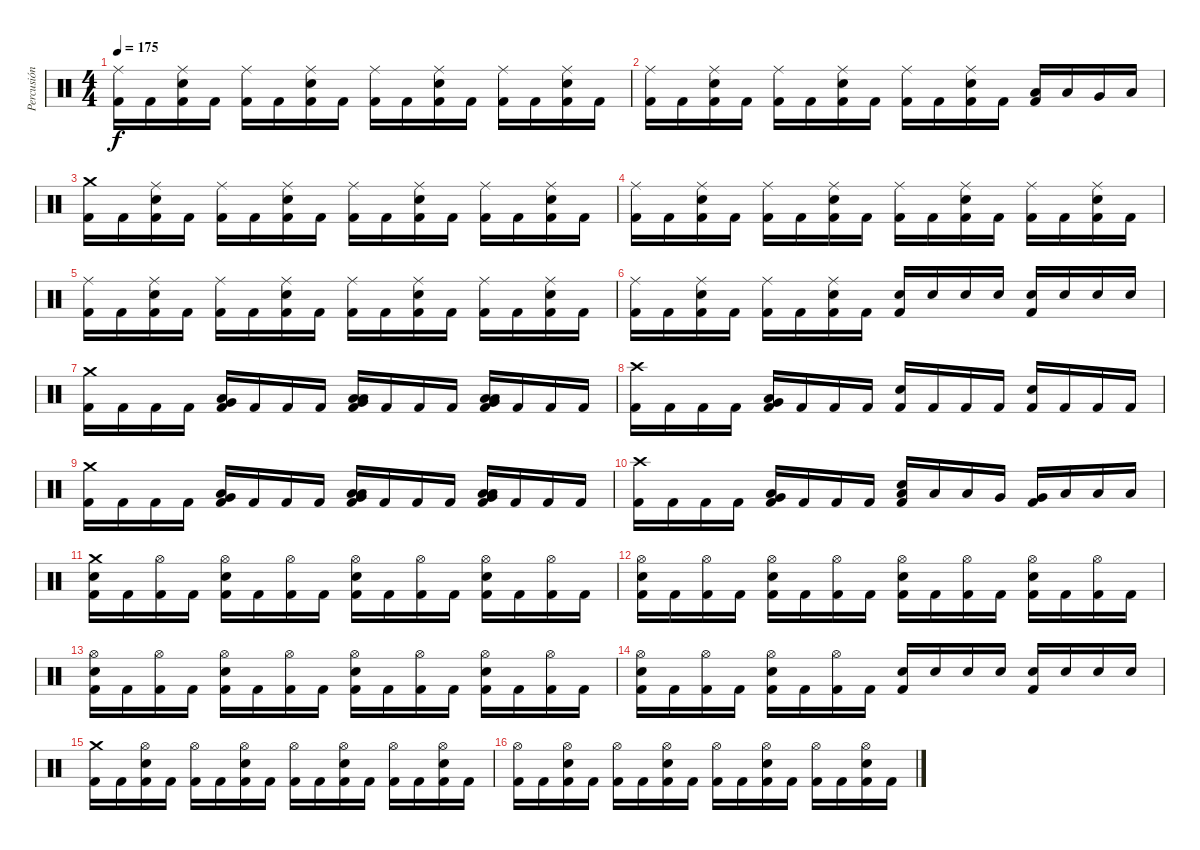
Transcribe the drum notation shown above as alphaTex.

\track ("Percusión" "Percusión") {instrument percussion}
\staff {score}
\articulation defaults
\ts (4 4)
\tempo 175
\clef neutral
\ks c
("Ride (middle)" "Kick (hit) 2").16{dy f} "Kick (hit) 2".16 ("Ride (middle)" "Electric Snare (hit)" "Kick (hit) 2").16 "Kick (hit) 2".16 ("Ride (middle)" "Kick (hit) 2").16 "Kick (hit) 2".16 ("Ride (middle)" "Electric Snare (hit)" "Kick (hit) 2").16 "Kick (hit) 2".16 ("Ride (middle)" "Kick (hit) 2").16 "Kick (hit) 2".16 ("Ride (middle)" "Electric Snare (hit)" "Kick (hit) 2").16 "Kick (hit) 2".16 ("Ride (middle)" "Kick (hit) 2").16 "Kick (hit) 2".16 ("Ride (middle)" "Electric Snare (hit)" "Kick (hit) 2").16 "Kick (hit) 2".16 |
("Ride (middle)" "Kick (hit) 2").16 "Kick (hit) 2".16 ("Ride (middle)" "Electric Snare (hit)" "Kick (hit) 2").16 "Kick (hit) 2".16 ("Ride (middle)" "Kick (hit) 2").16 "Kick (hit) 2".16 ("Ride (middle)" "Electric Snare (hit)" "Kick (hit) 2").16 "Kick (hit) 2".16 ("Ride (middle)" "Kick (hit) 2").16 "Kick (hit) 2".16 ("Ride (middle)" "Electric Snare (hit)" "Kick (hit) 2").16 "Kick (hit) 2".16 ("Low Tom (hit)" "Kick (hit) 2").16 "Low Tom (hit)".16 "Very Low Tom (hit)".16 "Low Floor Tom (hit)".16 |
("Crash medium (hit)" "Kick (hit) 2").16 "Kick (hit) 2".16 ("Ride (middle)" "Electric Snare (hit)" "Kick (hit) 2").16 "Kick (hit) 2".16 ("Ride (middle)" "Kick (hit) 2").16 "Kick (hit) 2".16 ("Ride (middle)" "Electric Snare (hit)" "Kick (hit) 2").16 "Kick (hit) 2".16 ("Ride (middle)" "Kick (hit) 2").16 "Kick (hit) 2".16 ("Ride (middle)" "Electric Snare (hit)" "Kick (hit) 2").16 "Kick (hit) 2".16 ("Ride (middle)" "Kick (hit) 2").16 "Kick (hit) 2".16 ("Ride (middle)" "Electric Snare (hit)" "Kick (hit) 2").16 "Kick (hit) 2".16 |
("Ride (middle)" "Kick (hit) 2").16 "Kick (hit) 2".16 ("Ride (middle)" "Electric Snare (hit)" "Kick (hit) 2").16 "Kick (hit) 2".16 ("Ride (middle)" "Kick (hit) 2").16 "Kick (hit) 2".16 ("Ride (middle)" "Electric Snare (hit)" "Kick (hit) 2").16 "Kick (hit) 2".16 ("Ride (middle)" "Kick (hit) 2").16 "Kick (hit) 2".16 ("Ride (middle)" "Electric Snare (hit)" "Kick (hit) 2").16 "Kick (hit) 2".16 ("Ride (middle)" "Kick (hit) 2").16 "Kick (hit) 2".16 ("Ride (middle)" "Electric Snare (hit)" "Kick (hit) 2").16 "Kick (hit) 2".16 |
("Ride (middle)" "Kick (hit) 2").16 "Kick (hit) 2".16 ("Ride (middle)" "Electric Snare (hit)" "Kick (hit) 2").16 "Kick (hit) 2".16 ("Ride (middle)" "Kick (hit) 2").16 "Kick (hit) 2".16 ("Ride (middle)" "Electric Snare (hit)" "Kick (hit) 2").16 "Kick (hit) 2".16 ("Ride (middle)" "Kick (hit) 2").16 "Kick (hit) 2".16 ("Ride (middle)" "Electric Snare (hit)" "Kick (hit) 2").16 "Kick (hit) 2".16 ("Ride (middle)" "Kick (hit) 2").16 "Kick (hit) 2".16 ("Ride (middle)" "Electric Snare (hit)" "Kick (hit) 2").16 "Kick (hit) 2".16 |
("Ride (middle)" "Kick (hit) 2").16 "Kick (hit) 2".16 ("Ride (middle)" "Electric Snare (hit)" "Kick (hit) 2").16 "Kick (hit) 2".16 ("Ride (middle)" "Kick (hit) 2").16 "Kick (hit) 2".16 ("Ride (middle)" "Electric Snare (hit)" "Kick (hit) 2").16 "Kick (hit) 2".16 ("Electric Snare (hit)" "Kick (hit) 2").16 "Electric Snare (hit)".16 "Electric Snare (hit)".16 "Electric Snare (hit)".16 ("Electric Snare (hit)" "Kick (hit) 2").16 "Electric Snare (hit)".16 "Electric Snare (hit)".16 "Electric Snare (hit)".16 |
("Crash medium (hit)" "Kick (hit) 2").16 "Kick (hit) 2".16 "Kick (hit) 2".16 "Kick (hit) 2".16 ("Low Tom (hit)" "Very Low Tom (hit)" "Kick (hit) 2").16 "Kick (hit) 2".16 "Kick (hit) 2".16 "Kick (hit) 2".16 ("Low Tom (hit)" "Very Low Tom (hit)" "Low Floor Tom (hit)" "Kick (hit) 2").16 "Kick (hit) 2".16 "Kick (hit) 2".16 "Kick (hit) 2".16 ("Low Tom (hit)" "Very Low Tom (hit)" "Low Floor Tom (hit)" "Kick (hit) 2").16 "Kick (hit) 2".16 "Kick (hit) 2".16 "Kick (hit) 2".16 |
("Crash high (hit)" "Kick (hit) 2").16 "Kick (hit) 2".16 "Kick (hit) 2".16 "Kick (hit) 2".16 ("Low Tom (hit)" "Very Low Tom (hit)" "Kick (hit) 2").16 "Kick (hit) 2".16 "Kick (hit) 2".16 "Kick (hit) 2".16 ("Electric Snare (hit)" "Kick (hit) 2").16 "Kick (hit) 2".16 "Kick (hit) 2".16 "Kick (hit) 2".16 ("Electric Snare (hit)" "Kick (hit) 2").16 "Kick (hit) 2".16 "Kick (hit) 2".16 "Kick (hit) 2".16 |
("Crash medium (hit)" "Kick (hit) 2").16 "Kick (hit) 2".16 "Kick (hit) 2".16 "Kick (hit) 2".16 ("Low Tom (hit)" "Very Low Tom (hit)" "Kick (hit) 2").16 "Kick (hit) 2".16 "Kick (hit) 2".16 "Kick (hit) 2".16 ("Low Tom (hit)" "Very Low Tom (hit)" "Low Floor Tom (hit)" "Kick (hit) 2").16 "Kick (hit) 2".16 "Kick (hit) 2".16 "Kick (hit) 2".16 ("Low Tom (hit)" "Very Low Tom (hit)" "Low Floor Tom (hit)" "Kick (hit) 2").16 "Kick (hit) 2".16 "Kick (hit) 2".16 "Kick (hit) 2".16 |
("Crash high (hit)" "Kick (hit) 2").16 "Kick (hit) 2".16 "Kick (hit) 2".16 "Kick (hit) 2".16 ("Low Tom (hit)" "Very Low Tom (hit)" "Kick (hit) 2").16 "Kick (hit) 2".16 "Kick (hit) 2".16 "Kick (hit) 2".16 ("Low Tom (hit)" "Electric Snare (hit)" "Kick (hit) 2").16 "Low Tom (hit)".16 "Low Tom (hit)".16 "Very Low Tom (hit)".16 ("Very Low Tom (hit)" "Kick (hit) 2").16 "Low Floor Tom (hit)".16 "Low Floor Tom (hit)".16 "Low Floor Tom (hit)".16 |
("Crash medium (hit)" "Electric Snare (hit)" "Kick (hit) 2").16 "Kick (hit) 2".16 ("Hi-Hat (open)" "Kick (hit) 2").16 "Kick (hit) 2".16 ("Hi-Hat (open)" "Electric Snare (hit)" "Kick (hit) 2").16 "Kick (hit) 2".16 ("Hi-Hat (open)" "Kick (hit) 2").16 "Kick (hit) 2".16 ("Hi-Hat (open)" "Electric Snare (hit)" "Kick (hit) 2").16 "Kick (hit) 2".16 ("Hi-Hat (open)" "Kick (hit) 2").16 "Kick (hit) 2".16 ("Hi-Hat (open)" "Electric Snare (hit)" "Kick (hit) 2").16 "Kick (hit) 2".16 ("Hi-Hat (open)" "Kick (hit) 2").16 "Kick (hit) 2".16 |
("Hi-Hat (open)" "Electric Snare (hit)" "Kick (hit) 2").16 "Kick (hit) 2".16 ("Hi-Hat (open)" "Kick (hit) 2").16 "Kick (hit) 2".16 ("Hi-Hat (open)" "Electric Snare (hit)" "Kick (hit) 2").16 "Kick (hit) 2".16 ("Hi-Hat (open)" "Kick (hit) 2").16 "Kick (hit) 2".16 ("Hi-Hat (open)" "Electric Snare (hit)" "Kick (hit) 2").16 "Kick (hit) 2".16 ("Hi-Hat (open)" "Kick (hit) 2").16 "Kick (hit) 2".16 ("Hi-Hat (open)" "Electric Snare (hit)" "Kick (hit) 2").16 "Kick (hit) 2".16 ("Hi-Hat (open)" "Kick (hit) 2").16 "Kick (hit) 2".16 |
("Hi-Hat (open)" "Electric Snare (hit)" "Kick (hit) 2").16 "Kick (hit) 2".16 ("Hi-Hat (open)" "Kick (hit) 2").16 "Kick (hit) 2".16 ("Hi-Hat (open)" "Electric Snare (hit)" "Kick (hit) 2").16 "Kick (hit) 2".16 ("Hi-Hat (open)" "Kick (hit) 2").16 "Kick (hit) 2".16 ("Hi-Hat (open)" "Electric Snare (hit)" "Kick (hit) 2").16 "Kick (hit) 2".16 ("Hi-Hat (open)" "Kick (hit) 2").16 "Kick (hit) 2".16 ("Hi-Hat (open)" "Electric Snare (hit)" "Kick (hit) 2").16 "Kick (hit) 2".16 ("Hi-Hat (open)" "Kick (hit) 2").16 "Kick (hit) 2".16 |
("Hi-Hat (open)" "Electric Snare (hit)" "Kick (hit) 2").16 "Kick (hit) 2".16 ("Hi-Hat (open)" "Kick (hit) 2").16 "Kick (hit) 2".16 ("Hi-Hat (open)" "Electric Snare (hit)" "Kick (hit) 2").16 "Kick (hit) 2".16 ("Hi-Hat (open)" "Kick (hit) 2").16 "Kick (hit) 2".16 ("Electric Snare (hit)" "Kick (hit) 2").16 "Electric Snare (hit)".16 "Electric Snare (hit)".16 "Electric Snare (hit)".16 ("Electric Snare (hit)" "Kick (hit) 2").16 "Electric Snare (hit)".16 "Electric Snare (hit)".16 "Electric Snare (hit)".16 |
("Crash medium (hit)" "Kick (hit) 2").16 "Kick (hit) 2".16 ("Hi-Hat (open)" "Electric Snare (hit)" "Kick (hit) 2").16 "Kick (hit) 2".16 ("Hi-Hat (open)" "Kick (hit) 2").16 "Kick (hit) 2".16 ("Hi-Hat (open)" "Electric Snare (hit)" "Kick (hit) 2").16 "Kick (hit) 2".16 ("Hi-Hat (open)" "Kick (hit) 2").16 "Kick (hit) 2".16 ("Hi-Hat (open)" "Electric Snare (hit)" "Kick (hit) 2").16 "Kick (hit) 2".16 ("Hi-Hat (open)" "Kick (hit) 2").16 "Kick (hit) 2".16 ("Hi-Hat (open)" "Electric Snare (hit)" "Kick (hit) 2").16 "Kick (hit) 2".16 |
("Hi-Hat (open)" "Kick (hit) 2").16 "Kick (hit) 2".16 ("Hi-Hat (open)" "Electric Snare (hit)" "Kick (hit) 2").16 "Kick (hit) 2".16 ("Hi-Hat (open)" "Kick (hit) 2").16 "Kick (hit) 2".16 ("Hi-Hat (open)" "Electric Snare (hit)" "Kick (hit) 2").16 "Kick (hit) 2".16 ("Hi-Hat (open)" "Kick (hit) 2").16 "Kick (hit) 2".16 ("Hi-Hat (open)" "Electric Snare (hit)" "Kick (hit) 2").16 "Kick (hit) 2".16 ("Hi-Hat (open)" "Kick (hit) 2").16 "Kick (hit) 2".16 ("Hi-Hat (open)" "Electric Snare (hit)" "Kick (hit) 2").16 "Kick (hit) 2".16
